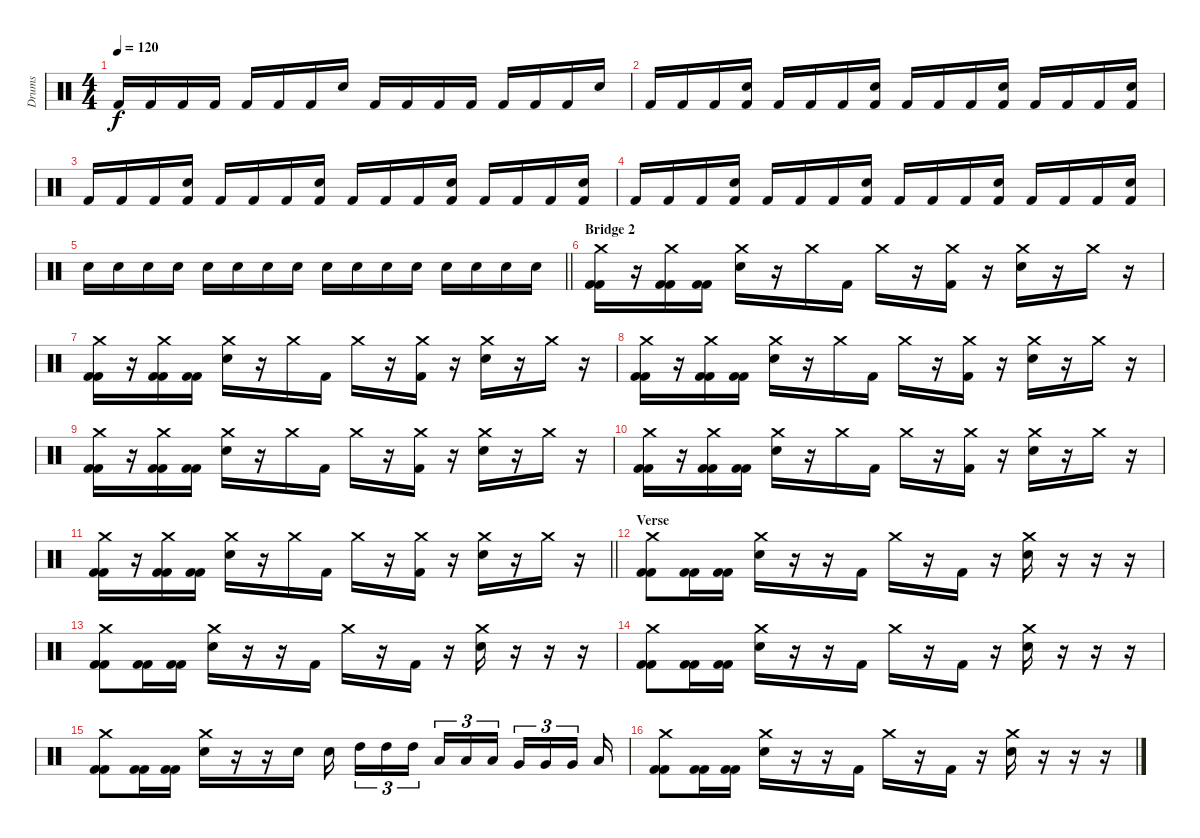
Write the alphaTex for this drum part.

\track ("Drums" "Drums") {instrument percussion}
\staff {score}
\articulation defaults
\ts (4 4)
\tempo 120
\clef neutral
\ks c "Kick (hit) 2".16{dy f} "Kick (hit) 2".16 "Kick (hit) 2".16 "Kick (hit) 2".16 "Kick (hit) 2".16 "Kick (hit) 2".16 "Kick (hit) 2".16 "Electric Snare (hit)".16 "Kick (hit) 2".16 "Kick (hit) 2".16 "Kick (hit) 2".16 "Kick (hit) 2".16 "Kick (hit) 2".16 "Kick (hit) 2".16 "Kick (hit) 2".16 "Electric Snare (hit)".16
|
"Kick (hit) 2".16 "Kick (hit) 2".16 "Kick (hit) 2".16 ("Electric Snare (hit)" "Kick (hit) 2").16 "Kick (hit) 2".16 "Kick (hit) 2".16 "Kick (hit) 2".16 ("Electric Snare (hit)" "Kick (hit) 2").16 "Kick (hit) 2".16 "Kick (hit) 2".16 "Kick (hit) 2".16 ("Electric Snare (hit)" "Kick (hit) 2").16 "Kick (hit) 2".16 "Kick (hit) 2".16 "Kick (hit) 2".16 ("Electric Snare (hit)" "Kick (hit) 2").16 |
"Kick (hit) 2".16 "Kick (hit) 2".16 "Kick (hit) 2".16 ("Electric Snare (hit)" "Kick (hit) 2").16 "Kick (hit) 2".16 "Kick (hit) 2".16 "Kick (hit) 2".16 ("Electric Snare (hit)" "Kick (hit) 2").16 "Kick (hit) 2".16 "Kick (hit) 2".16 "Kick (hit) 2".16 ("Electric Snare (hit)" "Kick (hit) 2").16 "Kick (hit) 2".16 "Kick (hit) 2".16 "Kick (hit) 2".16 ("Electric Snare (hit)" "Kick (hit) 2").16 |
"Kick (hit) 2".16 "Kick (hit) 2".16 "Kick (hit) 2".16 ("Electric Snare (hit)" "Kick (hit) 2").16 "Kick (hit) 2".16 "Kick (hit) 2".16 "Kick (hit) 2".16 ("Electric Snare (hit)" "Kick (hit) 2").16 "Kick (hit) 2".16 "Kick (hit) 2".16 "Kick (hit) 2".16 ("Electric Snare (hit)" "Kick (hit) 2").16 "Kick (hit) 2".16 "Kick (hit) 2".16 "Kick (hit) 2".16 ("Electric Snare (hit)" "Kick (hit) 2").16 |
\barLineRight lightlight "Electric Snare (hit)".16 "Electric Snare (hit)".16 "Electric Snare (hit)".16 "Electric Snare (hit)".16 "Electric Snare (hit)".16 "Electric Snare (hit)".16 "Electric Snare (hit)".16 "Electric Snare (hit)".16 "Electric Snare (hit)".16 "Electric Snare (hit)".16 "Electric Snare (hit)".16 "Electric Snare (hit)".16 "Electric Snare (hit)".16 "Electric Snare (hit)".16 "Electric Snare (hit)".16 "Electric Snare (hit)".16
|
\section ("" "Bridge 2")
("Kick (hit) 2" "Crash medium (hit)" "Kick (hit) 2").16 r.16 ("Kick (hit) 2" "Crash medium (hit)" "Kick (hit) 2").16 ("Kick (hit) 2" "Kick (hit) 2").16 ("Crash medium (hit)" "Electric Snare (hit)").16 r.16 "Crash medium (hit)".16 "Kick (hit) 2".16 "Crash medium (hit)".16 r.16 ("Crash medium (hit)" "Kick (hit) 2").16 r.16 ("Crash medium (hit)" "Electric Snare (hit)").16 r.16 "Crash medium (hit)".16 r.16 |
("Kick (hit) 2" "Crash medium (hit)" "Kick (hit) 2").16 r.16 ("Kick (hit) 2" "Crash medium (hit)" "Kick (hit) 2").16 ("Kick (hit) 2" "Kick (hit) 2").16 ("Crash medium (hit)" "Electric Snare (hit)").16 r.16 "Crash medium (hit)".16 "Kick (hit) 2".16 "Crash medium (hit)".16 r.16 ("Crash medium (hit)" "Kick (hit) 2").16 r.16 ("Crash medium (hit)" "Electric Snare (hit)").16 r.16 "Crash medium (hit)".16 r.16 |
("Kick (hit) 2" "Crash medium (hit)" "Kick (hit) 2").16 r.16 ("Kick (hit) 2" "Crash medium (hit)" "Kick (hit) 2").16 ("Kick (hit) 2" "Kick (hit) 2").16 ("Crash medium (hit)" "Electric Snare (hit)").16 r.16 "Crash medium (hit)".16 "Kick (hit) 2".16 "Crash medium (hit)".16 r.16 ("Crash medium (hit)" "Kick (hit) 2").16 r.16 ("Crash medium (hit)" "Electric Snare (hit)").16 r.16 "Crash medium (hit)".16 r.16 |
("Kick (hit) 2" "Crash medium (hit)" "Kick (hit) 2").16 r.16 ("Kick (hit) 2" "Crash medium (hit)" "Kick (hit) 2").16 ("Kick (hit) 2" "Kick (hit) 2").16 ("Crash medium (hit)" "Electric Snare (hit)").16 r.16 "Crash medium (hit)".16 "Kick (hit) 2".16 "Crash medium (hit)".16 r.16 ("Crash medium (hit)" "Kick (hit) 2").16 r.16 ("Crash medium (hit)" "Electric Snare (hit)").16 r.16 "Crash medium (hit)".16 r.16 |
("Kick (hit) 2" "Crash medium (hit)" "Kick (hit) 2").16 r.16 ("Kick (hit) 2" "Crash medium (hit)" "Kick (hit) 2").16 ("Kick (hit) 2" "Kick (hit) 2").16 ("Crash medium (hit)" "Electric Snare (hit)").16 r.16 "Crash medium (hit)".16 "Kick (hit) 2".16 "Crash medium (hit)".16 r.16 ("Crash medium (hit)" "Kick (hit) 2").16 r.16 ("Crash medium (hit)" "Electric Snare (hit)").16 r.16 "Crash medium (hit)".16 r.16 |
\barLineRight lightlight
("Kick (hit) 2" "Crash medium (hit)" "Kick (hit) 2").16 r.16 ("Kick (hit) 2" "Crash medium (hit)" "Kick (hit) 2").16 ("Kick (hit) 2" "Kick (hit) 2").16 ("Crash medium (hit)" "Electric Snare (hit)").16 r.16 "Crash medium (hit)".16 "Kick (hit) 2".16 "Crash medium (hit)".16 r.16 ("Crash medium (hit)" "Kick (hit) 2").16 r.16 ("Crash medium (hit)" "Electric Snare (hit)").16 r.16 "Crash medium (hit)".16 r.16 |
\section ("" "Verse")
("Kick (hit) 2" "Crash medium (hit)" "Kick (hit) 2").8 ("Kick (hit) 2" "Kick (hit) 2").16 ("Kick (hit) 2" "Kick (hit) 2").16 ("Crash medium (hit)" "Electric Snare (hit)").16 r.16 r.16 "Kick (hit) 2".16 "Crash medium (hit)".16 r.16 "Kick (hit) 2".16 r.16 ("Crash medium (hit)" "Electric Snare (hit)").16 r.16 r.16 r.16 |
("Kick (hit) 2" "Crash medium (hit)" "Kick (hit) 2").8 ("Kick (hit) 2" "Kick (hit) 2").16 ("Kick (hit) 2" "Kick (hit) 2").16 ("Crash medium (hit)" "Electric Snare (hit)").16 r.16 r.16 "Kick (hit) 2".16 "Crash medium (hit)".16 r.16 "Kick (hit) 2".16 r.16 ("Crash medium (hit)" "Electric Snare (hit)").16 r.16 r.16 r.16 |
("Kick (hit) 2" "Crash medium (hit)" "Kick (hit) 2").8 ("Kick (hit) 2" "Kick (hit) 2").16 ("Kick (hit) 2" "Kick (hit) 2").16 ("Crash medium (hit)" "Electric Snare (hit)").16 r.16 r.16 "Kick (hit) 2".16 "Crash medium (hit)".16 r.16 "Kick (hit) 2".16 r.16 ("Crash medium (hit)" "Electric Snare (hit)").16 r.16 r.16 r.16 |
("Kick (hit) 2" "Crash medium (hit)" "Kick (hit) 2").8 ("Kick (hit) 2" "Kick (hit) 2").16 ("Kick (hit) 2" "Kick (hit) 2").16 ("Crash medium (hit)" "Electric Snare (hit)").16 r.16 r.16 "Electric Snare (hit)".16 "Electric Snare (hit)".16{beam splitsecondary} "High Tom (hit)".16{tu (3 2)} "High Tom (hit)".16{tu (3 2)} "High Tom (hit)".16{tu (3 2) beam splitsecondary} "Low Tom (hit)".16{tu (3 2)} "Low Tom (hit)".16{tu (3 2)} "Low Tom (hit)".16{tu (3 2) beam splitsecondary} "Very Low Tom (hit)".16{tu (3 2)} "Very Low Tom (hit)".16{tu (3 2)} "Very Low Tom (hit)".16{tu (3 2) beam splitsecondary} "Low Floor Tom (hit)".16 |
("Kick (hit) 2" "Crash medium (hit)" "Kick (hit) 2").8 ("Kick (hit) 2" "Kick (hit) 2").16 ("Kick (hit) 2" "Kick (hit) 2").16 ("Crash medium (hit)" "Electric Snare (hit)").16 r.16 r.16 "Kick (hit) 2".16 "Crash medium (hit)".16 r.16 "Kick (hit) 2".16 r.16 ("Crash medium (hit)" "Electric Snare (hit)").16 r.16 r.16 r.16
